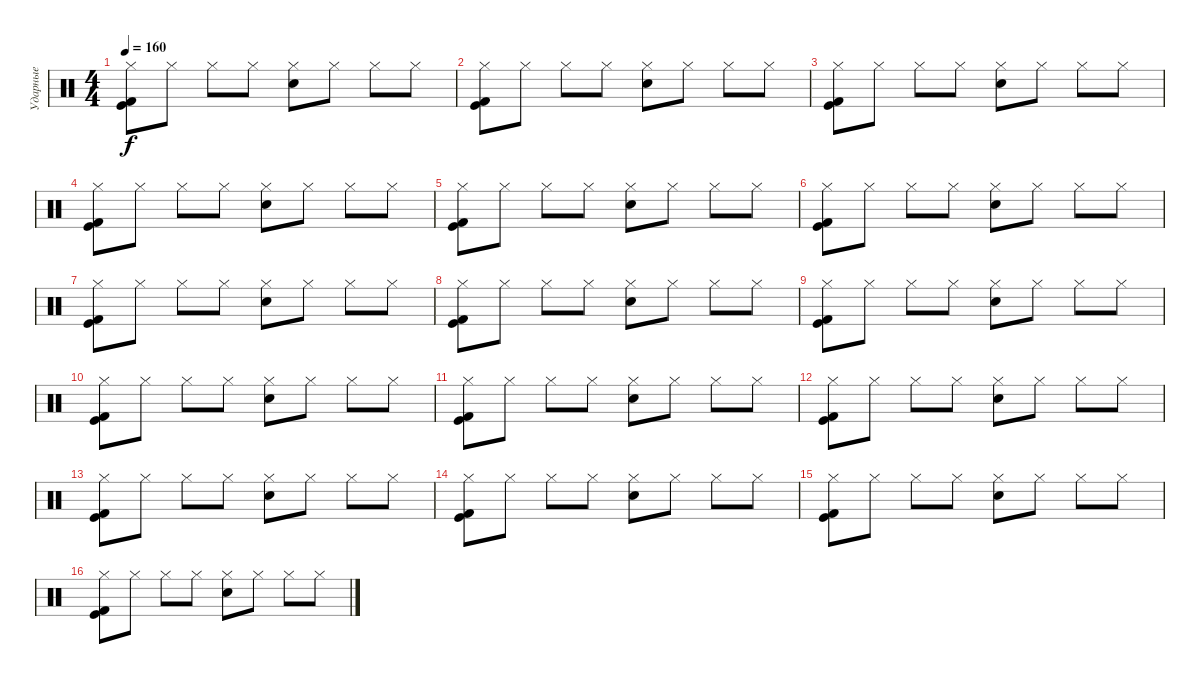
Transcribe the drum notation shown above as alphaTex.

\track ("Ударные" "Ударные") {instrument percussion}
\staff {score}
\articulation defaults
\ts (4 4)
\tempo 160
\clef neutral
\ks c
("Kick (hit) 2" "Hi-Hat (closed)" "Kick (hit)").8{dy f} "Hi-Hat (closed)".8 "Hi-Hat (closed)".8 "Hi-Hat (closed)".8 ("Hi-Hat (closed)" "Electric Snare (hit)").8 "Hi-Hat (closed)".8 "Hi-Hat (closed)".8 "Hi-Hat (closed)".8 |
("Kick (hit) 2" "Hi-Hat (closed)" "Kick (hit)").8 "Hi-Hat (closed)".8 "Hi-Hat (closed)".8 "Hi-Hat (closed)".8 ("Hi-Hat (closed)" "Electric Snare (hit)").8 "Hi-Hat (closed)".8 "Hi-Hat (closed)".8 "Hi-Hat (closed)".8 |
("Kick (hit) 2" "Hi-Hat (closed)" "Kick (hit)").8 "Hi-Hat (closed)".8 "Hi-Hat (closed)".8 "Hi-Hat (closed)".8 ("Hi-Hat (closed)" "Electric Snare (hit)").8 "Hi-Hat (closed)".8 "Hi-Hat (closed)".8 "Hi-Hat (closed)".8 |
("Kick (hit) 2" "Hi-Hat (closed)" "Kick (hit)").8 "Hi-Hat (closed)".8 "Hi-Hat (closed)".8 "Hi-Hat (closed)".8 ("Hi-Hat (closed)" "Electric Snare (hit)").8 "Hi-Hat (closed)".8 "Hi-Hat (closed)".8 "Hi-Hat (closed)".8 |
("Kick (hit) 2" "Hi-Hat (closed)" "Kick (hit)").8 "Hi-Hat (closed)".8 "Hi-Hat (closed)".8 "Hi-Hat (closed)".8 ("Hi-Hat (closed)" "Electric Snare (hit)").8 "Hi-Hat (closed)".8 "Hi-Hat (closed)".8 "Hi-Hat (closed)".8 |
("Kick (hit) 2" "Hi-Hat (closed)" "Kick (hit)").8 "Hi-Hat (closed)".8 "Hi-Hat (closed)".8 "Hi-Hat (closed)".8 ("Hi-Hat (closed)" "Electric Snare (hit)").8 "Hi-Hat (closed)".8 "Hi-Hat (closed)".8 "Hi-Hat (closed)".8 |
("Kick (hit) 2" "Hi-Hat (closed)" "Kick (hit)").8 "Hi-Hat (closed)".8 "Hi-Hat (closed)".8 "Hi-Hat (closed)".8 ("Hi-Hat (closed)" "Electric Snare (hit)").8 "Hi-Hat (closed)".8 "Hi-Hat (closed)".8 "Hi-Hat (closed)".8 |
("Kick (hit) 2" "Hi-Hat (closed)" "Kick (hit)").8 "Hi-Hat (closed)".8 "Hi-Hat (closed)".8 "Hi-Hat (closed)".8 ("Hi-Hat (closed)" "Electric Snare (hit)").8 "Hi-Hat (closed)".8 "Hi-Hat (closed)".8 "Hi-Hat (closed)".8 |
("Kick (hit) 2" "Hi-Hat (closed)" "Kick (hit)").8 "Hi-Hat (closed)".8 "Hi-Hat (closed)".8 "Hi-Hat (closed)".8 ("Hi-Hat (closed)" "Electric Snare (hit)").8 "Hi-Hat (closed)".8 "Hi-Hat (closed)".8 "Hi-Hat (closed)".8 |
("Kick (hit) 2" "Hi-Hat (closed)" "Kick (hit)").8 "Hi-Hat (closed)".8 "Hi-Hat (closed)".8 "Hi-Hat (closed)".8 ("Hi-Hat (closed)" "Electric Snare (hit)").8 "Hi-Hat (closed)".8 "Hi-Hat (closed)".8 "Hi-Hat (closed)".8 |
("Kick (hit) 2" "Hi-Hat (closed)" "Kick (hit)").8 "Hi-Hat (closed)".8 "Hi-Hat (closed)".8 "Hi-Hat (closed)".8 ("Hi-Hat (closed)" "Electric Snare (hit)").8 "Hi-Hat (closed)".8 "Hi-Hat (closed)".8 "Hi-Hat (closed)".8 |
("Kick (hit) 2" "Hi-Hat (closed)" "Kick (hit)").8 "Hi-Hat (closed)".8 "Hi-Hat (closed)".8 "Hi-Hat (closed)".8 ("Hi-Hat (closed)" "Electric Snare (hit)").8 "Hi-Hat (closed)".8 "Hi-Hat (closed)".8 "Hi-Hat (closed)".8 |
("Kick (hit) 2" "Hi-Hat (closed)" "Kick (hit)").8 "Hi-Hat (closed)".8 "Hi-Hat (closed)".8 "Hi-Hat (closed)".8 ("Hi-Hat (closed)" "Electric Snare (hit)").8 "Hi-Hat (closed)".8 "Hi-Hat (closed)".8 "Hi-Hat (closed)".8 |
("Kick (hit) 2" "Hi-Hat (closed)" "Kick (hit)").8 "Hi-Hat (closed)".8 "Hi-Hat (closed)".8 "Hi-Hat (closed)".8 ("Hi-Hat (closed)" "Electric Snare (hit)").8 "Hi-Hat (closed)".8 "Hi-Hat (closed)".8 "Hi-Hat (closed)".8 |
("Kick (hit) 2" "Hi-Hat (closed)" "Kick (hit)").8 "Hi-Hat (closed)".8 "Hi-Hat (closed)".8 "Hi-Hat (closed)".8 ("Hi-Hat (closed)" "Electric Snare (hit)").8 "Hi-Hat (closed)".8 "Hi-Hat (closed)".8 "Hi-Hat (closed)".8 |
("Kick (hit) 2" "Hi-Hat (closed)" "Kick (hit)").8 "Hi-Hat (closed)".8 "Hi-Hat (closed)".8 "Hi-Hat (closed)".8 ("Hi-Hat (closed)" "Electric Snare (hit)").8 "Hi-Hat (closed)".8 "Hi-Hat (closed)".8 "Hi-Hat (closed)".8
